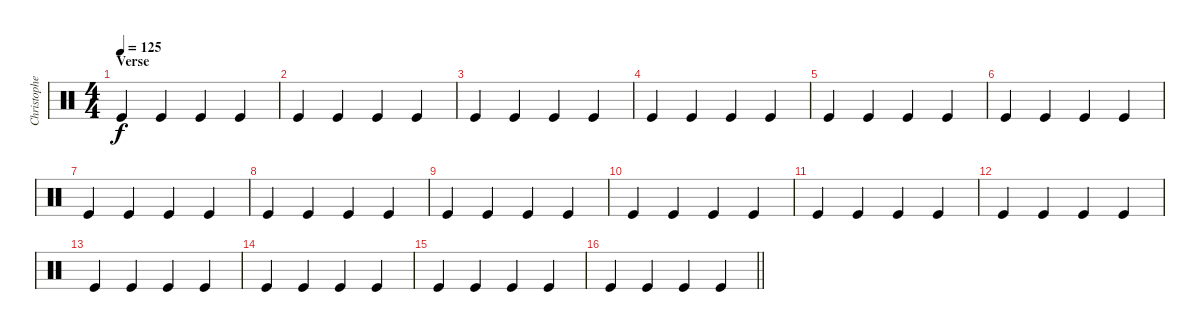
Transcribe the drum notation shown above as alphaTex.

\track ("Christopher - Drums" "Christophe") {instrument percussion}
\staff {score}
\articulation defaults
\ts (4 4)
\section ("" "Verse")
\tempo 125
\clef neutral
\ks c "Kick (hit)".4{dy f} "Kick (hit)".4 "Kick (hit)".4 "Kick (hit)".4
|
"Kick (hit)".4 "Kick (hit)".4 "Kick (hit)".4 "Kick (hit)".4 |
"Kick (hit)".4 "Kick (hit)".4 "Kick (hit)".4 "Kick (hit)".4 |
"Kick (hit)".4 "Kick (hit)".4 "Kick (hit)".4 "Kick (hit)".4 |
"Kick (hit)".4 "Kick (hit)".4 "Kick (hit)".4 "Kick (hit)".4 |
"Kick (hit)".4 "Kick (hit)".4 "Kick (hit)".4 "Kick (hit)".4 |
"Kick (hit)".4 "Kick (hit)".4 "Kick (hit)".4 "Kick (hit)".4 |
"Kick (hit)".4 "Kick (hit)".4 "Kick (hit)".4 "Kick (hit)".4 |
"Kick (hit)".4 "Kick (hit)".4 "Kick (hit)".4 "Kick (hit)".4 |
"Kick (hit)".4 "Kick (hit)".4 "Kick (hit)".4 "Kick (hit)".4 |
"Kick (hit)".4 "Kick (hit)".4 "Kick (hit)".4 "Kick (hit)".4 |
"Kick (hit)".4 "Kick (hit)".4 "Kick (hit)".4 "Kick (hit)".4 |
"Kick (hit)".4 "Kick (hit)".4 "Kick (hit)".4 "Kick (hit)".4 |
"Kick (hit)".4 "Kick (hit)".4 "Kick (hit)".4 "Kick (hit)".4 |
"Kick (hit)".4 "Kick (hit)".4 "Kick (hit)".4 "Kick (hit)".4 |
\barLineRight lightlight "Kick (hit)".4 "Kick (hit)".4 "Kick (hit)".4 "Kick (hit)".4
